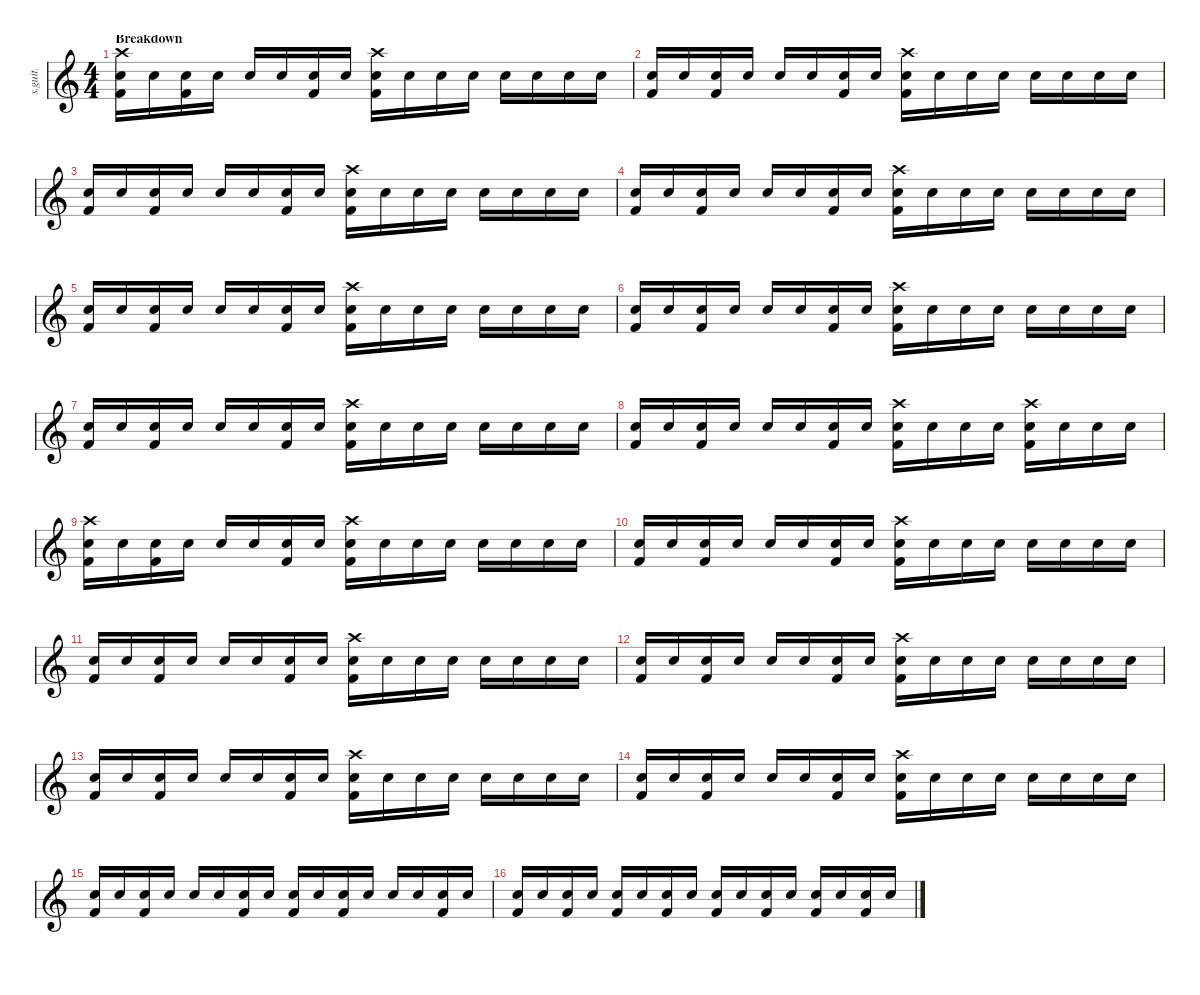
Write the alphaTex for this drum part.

\defaultSystemsLayout 4
\hideDynamics
\bracketExtendMode nobrackets
\track ("The Rev" "s.guit.") {instrument percussion}
\staff {score}
\articulation defaults
\ts (4 4)
\section ("" "Breakdown")
\tempo (125 hide)
\clef g2
\ks c
("Crash high (hit)" "Electric Snare (hit)" "Kick (hit) 2").16{lyrics (0 "") lyrics (1 "") lyrics (2 "") lyrics (3 "") lyrics (4 "") dy f} "Electric Snare (hit)".16{lyrics (0 "") lyrics (1 "") lyrics (2 "") lyrics (3 "") lyrics (4 "") dy pp} ("Electric Snare (hit)" "Kick (hit) 2").16{lyrics (0 "") lyrics (1 "") lyrics (2 "") lyrics (3 "") lyrics (4 "")} "Electric Snare (hit)".16{lyrics (0 "") lyrics (1 "") lyrics (2 "") lyrics (3 "") lyrics (4 "")} "Electric Snare (hit)".16{lyrics (0 "") lyrics (1 "") lyrics (2 "") lyrics (3 "") lyrics (4 "") dy mf} "Electric Snare (hit)".16{lyrics (0 "") lyrics (1 "") lyrics (2 "") lyrics (3 "") lyrics (4 "") dy pp} ("Electric Snare (hit)" "Kick (hit) 2").16{lyrics (0 "") lyrics (1 "") lyrics (2 "") lyrics (3 "") lyrics (4 "")} "Electric Snare (hit)".16{lyrics (0 "") lyrics (1 "") lyrics (2 "") lyrics (3 "") lyrics (4 "")} ("Crash high (hit)" "Electric Snare (hit)" "Kick (hit) 2").16{lyrics (0 "") lyrics (1 "") lyrics (2 "") lyrics (3 "") lyrics (4 "") dy f} "Electric Snare (hit)".16{lyrics (0 "") lyrics (1 "") lyrics (2 "") lyrics (3 "") lyrics (4 "") dy pp} "Electric Snare (hit)".16{lyrics (0 "") lyrics (1 "") lyrics (2 "") lyrics (3 "") lyrics (4 "")} "Electric Snare (hit)".16{lyrics (0 "") lyrics (1 "") lyrics (2 "") lyrics (3 "") lyrics (4 "")} "Electric Snare (hit)".16{lyrics (0 "") lyrics (1 "") lyrics (2 "") lyrics (3 "") lyrics (4 "") dy mf} "Electric Snare (hit)".16{lyrics (0 "") lyrics (1 "") lyrics (2 "") lyrics (3 "") lyrics (4 "") dy pp} "Electric Snare (hit)".16{lyrics (0 "") lyrics (1 "") lyrics (2 "") lyrics (3 "") lyrics (4 "")} "Electric Snare (hit)".16{lyrics (0 "") lyrics (1 "") lyrics (2 "") lyrics (3 "") lyrics (4 "")} |
("Electric Snare (hit)" "Kick (hit) 2").16{lyrics (0 "") lyrics (1 "") lyrics (2 "") lyrics (3 "") lyrics (4 "") dy mf} "Electric Snare (hit)".16{lyrics (0 "") lyrics (1 "") lyrics (2 "") lyrics (3 "") lyrics (4 "") dy pp} ("Electric Snare (hit)" "Kick (hit) 2").16{lyrics (0 "") lyrics (1 "") lyrics (2 "") lyrics (3 "") lyrics (4 "")} "Electric Snare (hit)".16{lyrics (0 "") lyrics (1 "") lyrics (2 "") lyrics (3 "") lyrics (4 "")} "Electric Snare (hit)".16{lyrics (0 "") lyrics (1 "") lyrics (2 "") lyrics (3 "") lyrics (4 "") dy mf} "Electric Snare (hit)".16{lyrics (0 "") lyrics (1 "") lyrics (2 "") lyrics (3 "") lyrics (4 "") dy pp} ("Electric Snare (hit)" "Kick (hit) 2").16{lyrics (0 "") lyrics (1 "") lyrics (2 "") lyrics (3 "") lyrics (4 "")} "Electric Snare (hit)".16{lyrics (0 "") lyrics (1 "") lyrics (2 "") lyrics (3 "") lyrics (4 "")} ("Crash high (hit)" "Electric Snare (hit)" "Kick (hit) 2").16{lyrics (0 "") lyrics (1 "") lyrics (2 "") lyrics (3 "") lyrics (4 "") dy f} "Electric Snare (hit)".16{lyrics (0 "") lyrics (1 "") lyrics (2 "") lyrics (3 "") lyrics (4 "") dy pp} "Electric Snare (hit)".16{lyrics (0 "") lyrics (1 "") lyrics (2 "") lyrics (3 "") lyrics (4 "")} "Electric Snare (hit)".16{lyrics (0 "") lyrics (1 "") lyrics (2 "") lyrics (3 "") lyrics (4 "")} "Electric Snare (hit)".16{lyrics (0 "") lyrics (1 "") lyrics (2 "") lyrics (3 "") lyrics (4 "") dy mf} "Electric Snare (hit)".16{lyrics (0 "") lyrics (1 "") lyrics (2 "") lyrics (3 "") lyrics (4 "") dy pp} "Electric Snare (hit)".16{lyrics (0 "") lyrics (1 "") lyrics (2 "") lyrics (3 "") lyrics (4 "")} "Electric Snare (hit)".16{lyrics (0 "") lyrics (1 "") lyrics (2 "") lyrics (3 "") lyrics (4 "")} |
("Electric Snare (hit)" "Kick (hit) 2").16{lyrics (0 "") lyrics (1 "") lyrics (2 "") lyrics (3 "") lyrics (4 "") dy mf} "Electric Snare (hit)".16{lyrics (0 "") lyrics (1 "") lyrics (2 "") lyrics (3 "") lyrics (4 "") dy pp} ("Electric Snare (hit)" "Kick (hit) 2").16{lyrics (0 "") lyrics (1 "") lyrics (2 "") lyrics (3 "") lyrics (4 "")} "Electric Snare (hit)".16{lyrics (0 "") lyrics (1 "") lyrics (2 "") lyrics (3 "") lyrics (4 "")} "Electric Snare (hit)".16{lyrics (0 "") lyrics (1 "") lyrics (2 "") lyrics (3 "") lyrics (4 "") dy mf} "Electric Snare (hit)".16{lyrics (0 "") lyrics (1 "") lyrics (2 "") lyrics (3 "") lyrics (4 "") dy pp} ("Electric Snare (hit)" "Kick (hit) 2").16{lyrics (0 "") lyrics (1 "") lyrics (2 "") lyrics (3 "") lyrics (4 "")} "Electric Snare (hit)".16{lyrics (0 "") lyrics (1 "") lyrics (2 "") lyrics (3 "") lyrics (4 "")} ("Crash high (hit)" "Electric Snare (hit)" "Kick (hit) 2").16{lyrics (0 "") lyrics (1 "") lyrics (2 "") lyrics (3 "") lyrics (4 "") dy f} "Electric Snare (hit)".16{lyrics (0 "") lyrics (1 "") lyrics (2 "") lyrics (3 "") lyrics (4 "") dy pp} "Electric Snare (hit)".16{lyrics (0 "") lyrics (1 "") lyrics (2 "") lyrics (3 "") lyrics (4 "")} "Electric Snare (hit)".16{lyrics (0 "") lyrics (1 "") lyrics (2 "") lyrics (3 "") lyrics (4 "")} "Electric Snare (hit)".16{lyrics (0 "") lyrics (1 "") lyrics (2 "") lyrics (3 "") lyrics (4 "") dy mf} "Electric Snare (hit)".16{lyrics (0 "") lyrics (1 "") lyrics (2 "") lyrics (3 "") lyrics (4 "") dy pp} "Electric Snare (hit)".16{lyrics (0 "") lyrics (1 "") lyrics (2 "") lyrics (3 "") lyrics (4 "")} "Electric Snare (hit)".16{lyrics (0 "") lyrics (1 "") lyrics (2 "") lyrics (3 "") lyrics (4 "")} |
("Electric Snare (hit)" "Kick (hit) 2").16{lyrics (0 "") lyrics (1 "") lyrics (2 "") lyrics (3 "") lyrics (4 "") dy mf} "Electric Snare (hit)".16{lyrics (0 "") lyrics (1 "") lyrics (2 "") lyrics (3 "") lyrics (4 "") dy pp} ("Electric Snare (hit)" "Kick (hit) 2").16{lyrics (0 "") lyrics (1 "") lyrics (2 "") lyrics (3 "") lyrics (4 "")} "Electric Snare (hit)".16{lyrics (0 "") lyrics (1 "") lyrics (2 "") lyrics (3 "") lyrics (4 "")} "Electric Snare (hit)".16{lyrics (0 "") lyrics (1 "") lyrics (2 "") lyrics (3 "") lyrics (4 "") dy mf} "Electric Snare (hit)".16{lyrics (0 "") lyrics (1 "") lyrics (2 "") lyrics (3 "") lyrics (4 "") dy pp} ("Electric Snare (hit)" "Kick (hit) 2").16{lyrics (0 "") lyrics (1 "") lyrics (2 "") lyrics (3 "") lyrics (4 "")} "Electric Snare (hit)".16{lyrics (0 "") lyrics (1 "") lyrics (2 "") lyrics (3 "") lyrics (4 "")} ("Crash high (hit)" "Electric Snare (hit)" "Kick (hit) 2").16{lyrics (0 "") lyrics (1 "") lyrics (2 "") lyrics (3 "") lyrics (4 "") dy f} "Electric Snare (hit)".16{lyrics (0 "") lyrics (1 "") lyrics (2 "") lyrics (3 "") lyrics (4 "") dy pp} "Electric Snare (hit)".16{lyrics (0 "") lyrics (1 "") lyrics (2 "") lyrics (3 "") lyrics (4 "")} "Electric Snare (hit)".16{lyrics (0 "") lyrics (1 "") lyrics (2 "") lyrics (3 "") lyrics (4 "")} "Electric Snare (hit)".16{lyrics (0 "") lyrics (1 "") lyrics (2 "") lyrics (3 "") lyrics (4 "") dy mf} "Electric Snare (hit)".16{lyrics (0 "") lyrics (1 "") lyrics (2 "") lyrics (3 "") lyrics (4 "") dy pp} "Electric Snare (hit)".16{lyrics (0 "") lyrics (1 "") lyrics (2 "") lyrics (3 "") lyrics (4 "")} "Electric Snare (hit)".16{lyrics (0 "") lyrics (1 "") lyrics (2 "") lyrics (3 "") lyrics (4 "")} |
("Electric Snare (hit)" "Kick (hit) 2").16{lyrics (0 "") lyrics (1 "") lyrics (2 "") lyrics (3 "") lyrics (4 "") dy mf} "Electric Snare (hit)".16{lyrics (0 "") lyrics (1 "") lyrics (2 "") lyrics (3 "") lyrics (4 "") dy pp} ("Electric Snare (hit)" "Kick (hit) 2").16{lyrics (0 "") lyrics (1 "") lyrics (2 "") lyrics (3 "") lyrics (4 "")} "Electric Snare (hit)".16{lyrics (0 "") lyrics (1 "") lyrics (2 "") lyrics (3 "") lyrics (4 "")} "Electric Snare (hit)".16{lyrics (0 "") lyrics (1 "") lyrics (2 "") lyrics (3 "") lyrics (4 "") dy mf} "Electric Snare (hit)".16{lyrics (0 "") lyrics (1 "") lyrics (2 "") lyrics (3 "") lyrics (4 "") dy pp} ("Electric Snare (hit)" "Kick (hit) 2").16{lyrics (0 "") lyrics (1 "") lyrics (2 "") lyrics (3 "") lyrics (4 "")} "Electric Snare (hit)".16{lyrics (0 "") lyrics (1 "") lyrics (2 "") lyrics (3 "") lyrics (4 "")} ("Crash high (hit)" "Electric Snare (hit)" "Kick (hit) 2").16{lyrics (0 "") lyrics (1 "") lyrics (2 "") lyrics (3 "") lyrics (4 "") dy f} "Electric Snare (hit)".16{lyrics (0 "") lyrics (1 "") lyrics (2 "") lyrics (3 "") lyrics (4 "") dy pp} "Electric Snare (hit)".16{lyrics (0 "") lyrics (1 "") lyrics (2 "") lyrics (3 "") lyrics (4 "")} "Electric Snare (hit)".16{lyrics (0 "") lyrics (1 "") lyrics (2 "") lyrics (3 "") lyrics (4 "")} "Electric Snare (hit)".16{lyrics (0 "") lyrics (1 "") lyrics (2 "") lyrics (3 "") lyrics (4 "") dy mf} "Electric Snare (hit)".16{lyrics (0 "") lyrics (1 "") lyrics (2 "") lyrics (3 "") lyrics (4 "") dy pp} "Electric Snare (hit)".16{lyrics (0 "") lyrics (1 "") lyrics (2 "") lyrics (3 "") lyrics (4 "")} "Electric Snare (hit)".16{lyrics (0 "") lyrics (1 "") lyrics (2 "") lyrics (3 "") lyrics (4 "")} |
("Electric Snare (hit)" "Kick (hit) 2").16{lyrics (0 "") lyrics (1 "") lyrics (2 "") lyrics (3 "") lyrics (4 "") dy mf} "Electric Snare (hit)".16{lyrics (0 "") lyrics (1 "") lyrics (2 "") lyrics (3 "") lyrics (4 "") dy pp} ("Electric Snare (hit)" "Kick (hit) 2").16{lyrics (0 "") lyrics (1 "") lyrics (2 "") lyrics (3 "") lyrics (4 "")} "Electric Snare (hit)".16{lyrics (0 "") lyrics (1 "") lyrics (2 "") lyrics (3 "") lyrics (4 "")} "Electric Snare (hit)".16{lyrics (0 "") lyrics (1 "") lyrics (2 "") lyrics (3 "") lyrics (4 "") dy mf} "Electric Snare (hit)".16{lyrics (0 "") lyrics (1 "") lyrics (2 "") lyrics (3 "") lyrics (4 "") dy pp} ("Electric Snare (hit)" "Kick (hit) 2").16{lyrics (0 "") lyrics (1 "") lyrics (2 "") lyrics (3 "") lyrics (4 "")} "Electric Snare (hit)".16{lyrics (0 "") lyrics (1 "") lyrics (2 "") lyrics (3 "") lyrics (4 "")} ("Crash high (hit)" "Electric Snare (hit)" "Kick (hit) 2").16{lyrics (0 "") lyrics (1 "") lyrics (2 "") lyrics (3 "") lyrics (4 "") dy f} "Electric Snare (hit)".16{lyrics (0 "") lyrics (1 "") lyrics (2 "") lyrics (3 "") lyrics (4 "") dy pp} "Electric Snare (hit)".16{lyrics (0 "") lyrics (1 "") lyrics (2 "") lyrics (3 "") lyrics (4 "")} "Electric Snare (hit)".16{lyrics (0 "") lyrics (1 "") lyrics (2 "") lyrics (3 "") lyrics (4 "")} "Electric Snare (hit)".16{lyrics (0 "") lyrics (1 "") lyrics (2 "") lyrics (3 "") lyrics (4 "") dy mf} "Electric Snare (hit)".16{lyrics (0 "") lyrics (1 "") lyrics (2 "") lyrics (3 "") lyrics (4 "") dy pp} "Electric Snare (hit)".16{lyrics (0 "") lyrics (1 "") lyrics (2 "") lyrics (3 "") lyrics (4 "")} "Electric Snare (hit)".16{lyrics (0 "") lyrics (1 "") lyrics (2 "") lyrics (3 "") lyrics (4 "")} |
("Electric Snare (hit)" "Kick (hit) 2").16{lyrics (0 "") lyrics (1 "") lyrics (2 "") lyrics (3 "") lyrics (4 "") dy mf} "Electric Snare (hit)".16{lyrics (0 "") lyrics (1 "") lyrics (2 "") lyrics (3 "") lyrics (4 "") dy pp} ("Electric Snare (hit)" "Kick (hit) 2").16{lyrics (0 "") lyrics (1 "") lyrics (2 "") lyrics (3 "") lyrics (4 "")} "Electric Snare (hit)".16{lyrics (0 "") lyrics (1 "") lyrics (2 "") lyrics (3 "") lyrics (4 "")} "Electric Snare (hit)".16{lyrics (0 "") lyrics (1 "") lyrics (2 "") lyrics (3 "") lyrics (4 "") dy mf} "Electric Snare (hit)".16{lyrics (0 "") lyrics (1 "") lyrics (2 "") lyrics (3 "") lyrics (4 "") dy pp} ("Electric Snare (hit)" "Kick (hit) 2").16{lyrics (0 "") lyrics (1 "") lyrics (2 "") lyrics (3 "") lyrics (4 "")} "Electric Snare (hit)".16{lyrics (0 "") lyrics (1 "") lyrics (2 "") lyrics (3 "") lyrics (4 "")} ("Crash high (hit)" "Electric Snare (hit)" "Kick (hit) 2").16{lyrics (0 "") lyrics (1 "") lyrics (2 "") lyrics (3 "") lyrics (4 "") dy f} "Electric Snare (hit)".16{lyrics (0 "") lyrics (1 "") lyrics (2 "") lyrics (3 "") lyrics (4 "") dy pp} "Electric Snare (hit)".16{lyrics (0 "") lyrics (1 "") lyrics (2 "") lyrics (3 "") lyrics (4 "")} "Electric Snare (hit)".16{lyrics (0 "") lyrics (1 "") lyrics (2 "") lyrics (3 "") lyrics (4 "")} "Electric Snare (hit)".16{lyrics (0 "") lyrics (1 "") lyrics (2 "") lyrics (3 "") lyrics (4 "") dy mf} "Electric Snare (hit)".16{lyrics (0 "") lyrics (1 "") lyrics (2 "") lyrics (3 "") lyrics (4 "") dy pp} "Electric Snare (hit)".16{lyrics (0 "") lyrics (1 "") lyrics (2 "") lyrics (3 "") lyrics (4 "")} "Electric Snare (hit)".16{lyrics (0 "") lyrics (1 "") lyrics (2 "") lyrics (3 "") lyrics (4 "")} |
("Electric Snare (hit)" "Kick (hit) 2").16{lyrics (0 "") lyrics (1 "") lyrics (2 "") lyrics (3 "") lyrics (4 "") dy mf} "Electric Snare (hit)".16{lyrics (0 "") lyrics (1 "") lyrics (2 "") lyrics (3 "") lyrics (4 "") dy pp} ("Electric Snare (hit)" "Kick (hit) 2").16{lyrics (0 "") lyrics (1 "") lyrics (2 "") lyrics (3 "") lyrics (4 "")} "Electric Snare (hit)".16{lyrics (0 "") lyrics (1 "") lyrics (2 "") lyrics (3 "") lyrics (4 "")} "Electric Snare (hit)".16{lyrics (0 "") lyrics (1 "") lyrics (2 "") lyrics (3 "") lyrics (4 "") dy mf} "Electric Snare (hit)".16{lyrics (0 "") lyrics (1 "") lyrics (2 "") lyrics (3 "") lyrics (4 "") dy pp} ("Electric Snare (hit)" "Kick (hit) 2").16{lyrics (0 "") lyrics (1 "") lyrics (2 "") lyrics (3 "") lyrics (4 "")} "Electric Snare (hit)".16{lyrics (0 "") lyrics (1 "") lyrics (2 "") lyrics (3 "") lyrics (4 "")} ("Crash high (hit)" "Electric Snare (hit)" "Kick (hit) 2").16{lyrics (0 "") lyrics (1 "") lyrics (2 "") lyrics (3 "") lyrics (4 "") dy f} "Electric Snare (hit)".16{lyrics (0 "") lyrics (1 "") lyrics (2 "") lyrics (3 "") lyrics (4 "") dy pp} "Electric Snare (hit)".16{lyrics (0 "") lyrics (1 "") lyrics (2 "") lyrics (3 "") lyrics (4 "")} "Electric Snare (hit)".16{lyrics (0 "") lyrics (1 "") lyrics (2 "") lyrics (3 "") lyrics (4 "")} ("Crash high (hit)" "Electric Snare (hit)" "Kick (hit) 2").16{lyrics (0 "") lyrics (1 "") lyrics (2 "") lyrics (3 "") lyrics (4 "") dy f} "Electric Snare (hit)".16{lyrics (0 "") lyrics (1 "") lyrics (2 "") lyrics (3 "") lyrics (4 "") dy pp} "Electric Snare (hit)".16{lyrics (0 "") lyrics (1 "") lyrics (2 "") lyrics (3 "") lyrics (4 "")} "Electric Snare (hit)".16{lyrics (0 "") lyrics (1 "") lyrics (2 "") lyrics (3 "") lyrics (4 "")} |
("Crash high (hit)" "Electric Snare (hit)" "Kick (hit) 2").16{lyrics (0 "") lyrics (1 "") lyrics (2 "") lyrics (3 "") lyrics (4 "") dy f} "Electric Snare (hit)".16{lyrics (0 "") lyrics (1 "") lyrics (2 "") lyrics (3 "") lyrics (4 "") dy pp} ("Electric Snare (hit)" "Kick (hit) 2").16{lyrics (0 "") lyrics (1 "") lyrics (2 "") lyrics (3 "") lyrics (4 "")} "Electric Snare (hit)".16{lyrics (0 "") lyrics (1 "") lyrics (2 "") lyrics (3 "") lyrics (4 "")} "Electric Snare (hit)".16{lyrics (0 "") lyrics (1 "") lyrics (2 "") lyrics (3 "") lyrics (4 "") dy mf} "Electric Snare (hit)".16{lyrics (0 "") lyrics (1 "") lyrics (2 "") lyrics (3 "") lyrics (4 "") dy pp} ("Electric Snare (hit)" "Kick (hit) 2").16{lyrics (0 "") lyrics (1 "") lyrics (2 "") lyrics (3 "") lyrics (4 "")} "Electric Snare (hit)".16{lyrics (0 "") lyrics (1 "") lyrics (2 "") lyrics (3 "") lyrics (4 "")} ("Crash high (hit)" "Electric Snare (hit)" "Kick (hit) 2").16{lyrics (0 "") lyrics (1 "") lyrics (2 "") lyrics (3 "") lyrics (4 "") dy f} "Electric Snare (hit)".16{lyrics (0 "") lyrics (1 "") lyrics (2 "") lyrics (3 "") lyrics (4 "") dy pp} "Electric Snare (hit)".16{lyrics (0 "") lyrics (1 "") lyrics (2 "") lyrics (3 "") lyrics (4 "")} "Electric Snare (hit)".16{lyrics (0 "") lyrics (1 "") lyrics (2 "") lyrics (3 "") lyrics (4 "")} "Electric Snare (hit)".16{lyrics (0 "") lyrics (1 "") lyrics (2 "") lyrics (3 "") lyrics (4 "") dy mf} "Electric Snare (hit)".16{lyrics (0 "") lyrics (1 "") lyrics (2 "") lyrics (3 "") lyrics (4 "") dy pp} "Electric Snare (hit)".16{lyrics (0 "") lyrics (1 "") lyrics (2 "") lyrics (3 "") lyrics (4 "")} "Electric Snare (hit)".16{lyrics (0 "") lyrics (1 "") lyrics (2 "") lyrics (3 "") lyrics (4 "")} |
("Electric Snare (hit)" "Kick (hit) 2").16{lyrics (0 "") lyrics (1 "") lyrics (2 "") lyrics (3 "") lyrics (4 "") dy mf} "Electric Snare (hit)".16{lyrics (0 "") lyrics (1 "") lyrics (2 "") lyrics (3 "") lyrics (4 "") dy pp} ("Electric Snare (hit)" "Kick (hit) 2").16{lyrics (0 "") lyrics (1 "") lyrics (2 "") lyrics (3 "") lyrics (4 "")} "Electric Snare (hit)".16{lyrics (0 "") lyrics (1 "") lyrics (2 "") lyrics (3 "") lyrics (4 "")} "Electric Snare (hit)".16{lyrics (0 "") lyrics (1 "") lyrics (2 "") lyrics (3 "") lyrics (4 "") dy mf} "Electric Snare (hit)".16{lyrics (0 "") lyrics (1 "") lyrics (2 "") lyrics (3 "") lyrics (4 "") dy pp} ("Electric Snare (hit)" "Kick (hit) 2").16{lyrics (0 "") lyrics (1 "") lyrics (2 "") lyrics (3 "") lyrics (4 "")} "Electric Snare (hit)".16{lyrics (0 "") lyrics (1 "") lyrics (2 "") lyrics (3 "") lyrics (4 "")} ("Crash high (hit)" "Electric Snare (hit)" "Kick (hit) 2").16{lyrics (0 "") lyrics (1 "") lyrics (2 "") lyrics (3 "") lyrics (4 "") dy f} "Electric Snare (hit)".16{lyrics (0 "") lyrics (1 "") lyrics (2 "") lyrics (3 "") lyrics (4 "") dy pp} "Electric Snare (hit)".16{lyrics (0 "") lyrics (1 "") lyrics (2 "") lyrics (3 "") lyrics (4 "")} "Electric Snare (hit)".16{lyrics (0 "") lyrics (1 "") lyrics (2 "") lyrics (3 "") lyrics (4 "")} "Electric Snare (hit)".16{lyrics (0 "") lyrics (1 "") lyrics (2 "") lyrics (3 "") lyrics (4 "") dy mf} "Electric Snare (hit)".16{lyrics (0 "") lyrics (1 "") lyrics (2 "") lyrics (3 "") lyrics (4 "") dy pp} "Electric Snare (hit)".16{lyrics (0 "") lyrics (1 "") lyrics (2 "") lyrics (3 "") lyrics (4 "")} "Electric Snare (hit)".16{lyrics (0 "") lyrics (1 "") lyrics (2 "") lyrics (3 "") lyrics (4 "")} |
("Electric Snare (hit)" "Kick (hit) 2").16{lyrics (0 "") lyrics (1 "") lyrics (2 "") lyrics (3 "") lyrics (4 "") dy mf} "Electric Snare (hit)".16{lyrics (0 "") lyrics (1 "") lyrics (2 "") lyrics (3 "") lyrics (4 "") dy pp} ("Electric Snare (hit)" "Kick (hit) 2").16{lyrics (0 "") lyrics (1 "") lyrics (2 "") lyrics (3 "") lyrics (4 "")} "Electric Snare (hit)".16{lyrics (0 "") lyrics (1 "") lyrics (2 "") lyrics (3 "") lyrics (4 "")} "Electric Snare (hit)".16{lyrics (0 "") lyrics (1 "") lyrics (2 "") lyrics (3 "") lyrics (4 "") dy mf} "Electric Snare (hit)".16{lyrics (0 "") lyrics (1 "") lyrics (2 "") lyrics (3 "") lyrics (4 "") dy pp} ("Electric Snare (hit)" "Kick (hit) 2").16{lyrics (0 "") lyrics (1 "") lyrics (2 "") lyrics (3 "") lyrics (4 "")} "Electric Snare (hit)".16{lyrics (0 "") lyrics (1 "") lyrics (2 "") lyrics (3 "") lyrics (4 "")} ("Crash high (hit)" "Electric Snare (hit)" "Kick (hit) 2").16{lyrics (0 "") lyrics (1 "") lyrics (2 "") lyrics (3 "") lyrics (4 "") dy f} "Electric Snare (hit)".16{lyrics (0 "") lyrics (1 "") lyrics (2 "") lyrics (3 "") lyrics (4 "") dy pp} "Electric Snare (hit)".16{lyrics (0 "") lyrics (1 "") lyrics (2 "") lyrics (3 "") lyrics (4 "")} "Electric Snare (hit)".16{lyrics (0 "") lyrics (1 "") lyrics (2 "") lyrics (3 "") lyrics (4 "")} "Electric Snare (hit)".16{lyrics (0 "") lyrics (1 "") lyrics (2 "") lyrics (3 "") lyrics (4 "") dy mf} "Electric Snare (hit)".16{lyrics (0 "") lyrics (1 "") lyrics (2 "") lyrics (3 "") lyrics (4 "") dy pp} "Electric Snare (hit)".16{lyrics (0 "") lyrics (1 "") lyrics (2 "") lyrics (3 "") lyrics (4 "")} "Electric Snare (hit)".16{lyrics (0 "") lyrics (1 "") lyrics (2 "") lyrics (3 "") lyrics (4 "")} |
("Electric Snare (hit)" "Kick (hit) 2").16{lyrics (0 "") lyrics (1 "") lyrics (2 "") lyrics (3 "") lyrics (4 "") dy mf} "Electric Snare (hit)".16{lyrics (0 "") lyrics (1 "") lyrics (2 "") lyrics (3 "") lyrics (4 "") dy pp} ("Electric Snare (hit)" "Kick (hit) 2").16{lyrics (0 "") lyrics (1 "") lyrics (2 "") lyrics (3 "") lyrics (4 "")} "Electric Snare (hit)".16{lyrics (0 "") lyrics (1 "") lyrics (2 "") lyrics (3 "") lyrics (4 "")} "Electric Snare (hit)".16{lyrics (0 "") lyrics (1 "") lyrics (2 "") lyrics (3 "") lyrics (4 "") dy mf} "Electric Snare (hit)".16{lyrics (0 "") lyrics (1 "") lyrics (2 "") lyrics (3 "") lyrics (4 "") dy pp} ("Electric Snare (hit)" "Kick (hit) 2").16{lyrics (0 "") lyrics (1 "") lyrics (2 "") lyrics (3 "") lyrics (4 "")} "Electric Snare (hit)".16{lyrics (0 "") lyrics (1 "") lyrics (2 "") lyrics (3 "") lyrics (4 "")} ("Crash high (hit)" "Electric Snare (hit)" "Kick (hit) 2").16{lyrics (0 "") lyrics (1 "") lyrics (2 "") lyrics (3 "") lyrics (4 "") dy f} "Electric Snare (hit)".16{lyrics (0 "") lyrics (1 "") lyrics (2 "") lyrics (3 "") lyrics (4 "") dy pp} "Electric Snare (hit)".16{lyrics (0 "") lyrics (1 "") lyrics (2 "") lyrics (3 "") lyrics (4 "")} "Electric Snare (hit)".16{lyrics (0 "") lyrics (1 "") lyrics (2 "") lyrics (3 "") lyrics (4 "")} "Electric Snare (hit)".16{lyrics (0 "") lyrics (1 "") lyrics (2 "") lyrics (3 "") lyrics (4 "") dy mf} "Electric Snare (hit)".16{lyrics (0 "") lyrics (1 "") lyrics (2 "") lyrics (3 "") lyrics (4 "") dy pp} "Electric Snare (hit)".16{lyrics (0 "") lyrics (1 "") lyrics (2 "") lyrics (3 "") lyrics (4 "")} "Electric Snare (hit)".16{lyrics (0 "") lyrics (1 "") lyrics (2 "") lyrics (3 "") lyrics (4 "")} |
("Electric Snare (hit)" "Kick (hit) 2").16{lyrics (0 "") lyrics (1 "") lyrics (2 "") lyrics (3 "") lyrics (4 "") dy mf} "Electric Snare (hit)".16{lyrics (0 "") lyrics (1 "") lyrics (2 "") lyrics (3 "") lyrics (4 "") dy pp} ("Electric Snare (hit)" "Kick (hit) 2").16{lyrics (0 "") lyrics (1 "") lyrics (2 "") lyrics (3 "") lyrics (4 "")} "Electric Snare (hit)".16{lyrics (0 "") lyrics (1 "") lyrics (2 "") lyrics (3 "") lyrics (4 "")} "Electric Snare (hit)".16{lyrics (0 "") lyrics (1 "") lyrics (2 "") lyrics (3 "") lyrics (4 "") dy mf} "Electric Snare (hit)".16{lyrics (0 "") lyrics (1 "") lyrics (2 "") lyrics (3 "") lyrics (4 "") dy pp} ("Electric Snare (hit)" "Kick (hit) 2").16{lyrics (0 "") lyrics (1 "") lyrics (2 "") lyrics (3 "") lyrics (4 "")} "Electric Snare (hit)".16{lyrics (0 "") lyrics (1 "") lyrics (2 "") lyrics (3 "") lyrics (4 "")} ("Crash high (hit)" "Electric Snare (hit)" "Kick (hit) 2").16{lyrics (0 "") lyrics (1 "") lyrics (2 "") lyrics (3 "") lyrics (4 "") dy f} "Electric Snare (hit)".16{lyrics (0 "") lyrics (1 "") lyrics (2 "") lyrics (3 "") lyrics (4 "") dy pp} "Electric Snare (hit)".16{lyrics (0 "") lyrics (1 "") lyrics (2 "") lyrics (3 "") lyrics (4 "")} "Electric Snare (hit)".16{lyrics (0 "") lyrics (1 "") lyrics (2 "") lyrics (3 "") lyrics (4 "")} "Electric Snare (hit)".16{lyrics (0 "") lyrics (1 "") lyrics (2 "") lyrics (3 "") lyrics (4 "") dy mf} "Electric Snare (hit)".16{lyrics (0 "") lyrics (1 "") lyrics (2 "") lyrics (3 "") lyrics (4 "") dy pp} "Electric Snare (hit)".16{lyrics (0 "") lyrics (1 "") lyrics (2 "") lyrics (3 "") lyrics (4 "")} "Electric Snare (hit)".16{lyrics (0 "") lyrics (1 "") lyrics (2 "") lyrics (3 "") lyrics (4 "")} |
("Electric Snare (hit)" "Kick (hit) 2").16{lyrics (0 "") lyrics (1 "") lyrics (2 "") lyrics (3 "") lyrics (4 "") dy mf} "Electric Snare (hit)".16{lyrics (0 "") lyrics (1 "") lyrics (2 "") lyrics (3 "") lyrics (4 "") dy pp} ("Electric Snare (hit)" "Kick (hit) 2").16{lyrics (0 "") lyrics (1 "") lyrics (2 "") lyrics (3 "") lyrics (4 "")} "Electric Snare (hit)".16{lyrics (0 "") lyrics (1 "") lyrics (2 "") lyrics (3 "") lyrics (4 "")} "Electric Snare (hit)".16{lyrics (0 "") lyrics (1 "") lyrics (2 "") lyrics (3 "") lyrics (4 "") dy mf} "Electric Snare (hit)".16{lyrics (0 "") lyrics (1 "") lyrics (2 "") lyrics (3 "") lyrics (4 "") dy pp} ("Electric Snare (hit)" "Kick (hit) 2").16{lyrics (0 "") lyrics (1 "") lyrics (2 "") lyrics (3 "") lyrics (4 "")} "Electric Snare (hit)".16{lyrics (0 "") lyrics (1 "") lyrics (2 "") lyrics (3 "") lyrics (4 "")} ("Crash high (hit)" "Electric Snare (hit)" "Kick (hit) 2").16{lyrics (0 "") lyrics (1 "") lyrics (2 "") lyrics (3 "") lyrics (4 "") dy f} "Electric Snare (hit)".16{lyrics (0 "") lyrics (1 "") lyrics (2 "") lyrics (3 "") lyrics (4 "") dy pp} "Electric Snare (hit)".16{lyrics (0 "") lyrics (1 "") lyrics (2 "") lyrics (3 "") lyrics (4 "")} "Electric Snare (hit)".16{lyrics (0 "") lyrics (1 "") lyrics (2 "") lyrics (3 "") lyrics (4 "")} "Electric Snare (hit)".16{lyrics (0 "") lyrics (1 "") lyrics (2 "") lyrics (3 "") lyrics (4 "") dy mf} "Electric Snare (hit)".16{lyrics (0 "") lyrics (1 "") lyrics (2 "") lyrics (3 "") lyrics (4 "") dy pp} "Electric Snare (hit)".16{lyrics (0 "") lyrics (1 "") lyrics (2 "") lyrics (3 "") lyrics (4 "")} "Electric Snare (hit)".16{lyrics (0 "") lyrics (1 "") lyrics (2 "") lyrics (3 "") lyrics (4 "")} |
("Electric Snare (hit)" "Kick (hit) 2").16{lyrics (0 "") lyrics (1 "") lyrics (2 "") lyrics (3 "") lyrics (4 "") dy mp} "Electric Snare (hit)".16{lyrics (0 "") lyrics (1 "") lyrics (2 "") lyrics (3 "") lyrics (4 "") dy pp} ("Electric Snare (hit)" "Kick (hit) 2").16{lyrics (0 "") lyrics (1 "") lyrics (2 "") lyrics (3 "") lyrics (4 "")} "Electric Snare (hit)".16{lyrics (0 "") lyrics (1 "") lyrics (2 "") lyrics (3 "") lyrics (4 "") dy mp} "Electric Snare (hit)".16{lyrics (0 "") lyrics (1 "") lyrics (2 "") lyrics (3 "") lyrics (4 "")} "Electric Snare (hit)".16{lyrics (0 "") lyrics (1 "") lyrics (2 "") lyrics (3 "") lyrics (4 "") dy pp} ("Electric Snare (hit)" "Kick (hit) 2").16{lyrics (0 "") lyrics (1 "") lyrics (2 "") lyrics (3 "") lyrics (4 "")} "Electric Snare (hit)".16{lyrics (0 "") lyrics (1 "") lyrics (2 "") lyrics (3 "") lyrics (4 "") dy mp} ("Electric Snare (hit)" "Kick (hit) 2").16{lyrics (0 "") lyrics (1 "") lyrics (2 "") lyrics (3 "") lyrics (4 "")} "Electric Snare (hit)".16{lyrics (0 "") lyrics (1 "") lyrics (2 "") lyrics (3 "") lyrics (4 "") dy p} ("Electric Snare (hit)" "Kick (hit) 2").16{lyrics (0 "") lyrics (1 "") lyrics (2 "") lyrics (3 "") lyrics (4 "")} "Electric Snare (hit)".16{lyrics (0 "") lyrics (1 "") lyrics (2 "") lyrics (3 "") lyrics (4 "") dy mf} "Electric Snare (hit)".16{lyrics (0 "") lyrics (1 "") lyrics (2 "") lyrics (3 "") lyrics (4 "")} "Electric Snare (hit)".16{lyrics (0 "") lyrics (1 "") lyrics (2 "") lyrics (3 "") lyrics (4 "") dy mp} ("Electric Snare (hit)" "Kick (hit) 2").16{lyrics (0 "") lyrics (1 "") lyrics (2 "") lyrics (3 "") lyrics (4 "")} "Electric Snare (hit)".16{lyrics (0 "") lyrics (1 "") lyrics (2 "") lyrics (3 "") lyrics (4 "")} |
("Electric Snare (hit)" "Kick (hit) 2").16{lyrics (0 "") lyrics (1 "") lyrics (2 "") lyrics (3 "") lyrics (4 "")} "Electric Snare (hit)".16{lyrics (0 "") lyrics (1 "") lyrics (2 "") lyrics (3 "") lyrics (4 "")} ("Electric Snare (hit)" "Kick (hit) 2").16{lyrics (0 "") lyrics (1 "") lyrics (2 "") lyrics (3 "") lyrics (4 "")} "Electric Snare (hit)".16{lyrics (0 "") lyrics (1 "") lyrics (2 "") lyrics (3 "") lyrics (4 "")} ("Electric Snare (hit)" "Kick (hit) 2").16{lyrics (0 "") lyrics (1 "") lyrics (2 "") lyrics (3 "") lyrics (4 "")} "Electric Snare (hit)".16{lyrics (0 "") lyrics (1 "") lyrics (2 "") lyrics (3 "") lyrics (4 "")} ("Electric Snare (hit)" "Kick (hit) 2").16{lyrics (0 "") lyrics (1 "") lyrics (2 "") lyrics (3 "") lyrics (4 "") dy mf} "Electric Snare (hit)".16{lyrics (0 "") lyrics (1 "") lyrics (2 "") lyrics (3 "") lyrics (4 "")} ("Electric Snare (hit)" "Kick (hit) 2").16{lyrics (0 "") lyrics (1 "") lyrics (2 "") lyrics (3 "") lyrics (4 "")} "Electric Snare (hit)".16{lyrics (0 "") lyrics (1 "") lyrics (2 "") lyrics (3 "") lyrics (4 "")} ("Electric Snare (hit)" "Kick (hit) 2").16{lyrics (0 "") lyrics (1 "") lyrics (2 "") lyrics (3 "") lyrics (4 "") dy f} "Electric Snare (hit)".16{lyrics (0 "") lyrics (1 "") lyrics (2 "") lyrics (3 "") lyrics (4 "")} ("Electric Snare (hit)" "Kick (hit) 2").16{lyrics (0 "") lyrics (1 "") lyrics (2 "") lyrics (3 "") lyrics (4 "") dy ff} "Electric Snare (hit)".16{lyrics (0 "") lyrics (1 "") lyrics (2 "") lyrics (3 "") lyrics (4 "")} ("Electric Snare (hit)" "Kick (hit) 2").16{lyrics (0 "") lyrics (1 "") lyrics (2 "") lyrics (3 "") lyrics (4 "")} "Electric Snare (hit)".16{lyrics (0 "") lyrics (1 "") lyrics (2 "") lyrics (3 "") lyrics (4 "")}
